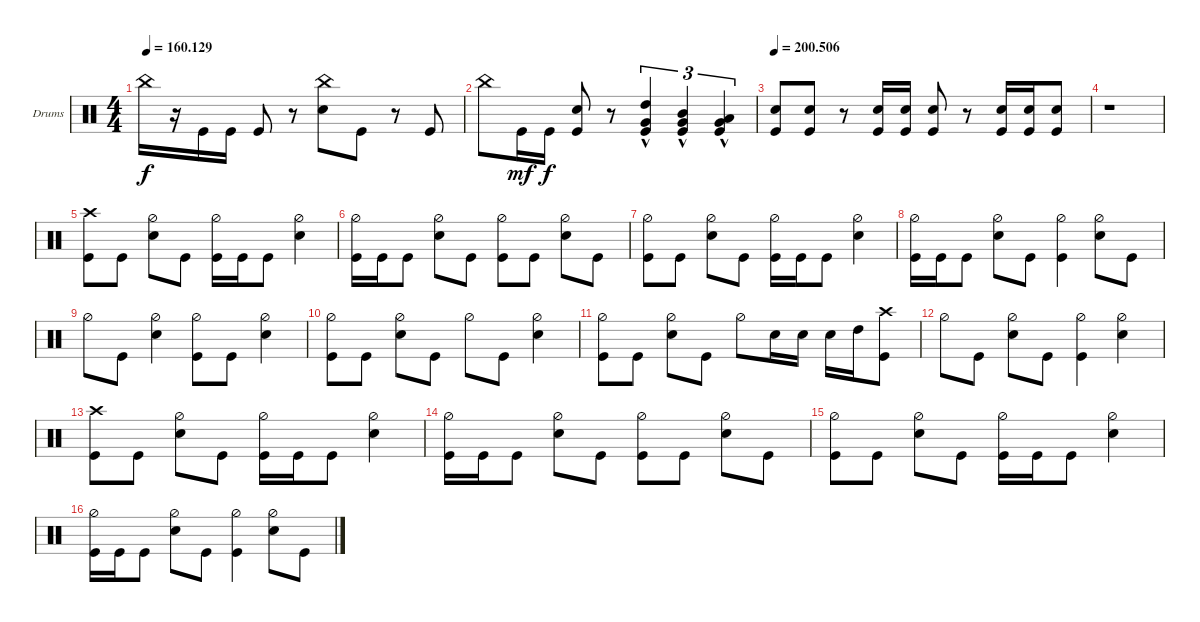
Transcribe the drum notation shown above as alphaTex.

\bracketExtendMode groupsimilarinstruments
\firstSystemTrackNameOrientation horizontal
\otherSystemsTrackNameOrientation horizontal
\track ("Emile Bardou" "Drums") {instrument percussion}
\staff {score}
\articulation defaults
\ts (4 4)
\tempo
160.129
\accidentals auto
\clef neutral
\ottava regular
\simile none
\ks c "China (hit)".16{dy f}
r.16 "Kick (hit)".16 "Kick (hit)".16 "Kick (hit)".8 r.8 ("China (hit)" "Snare (hit) 2").8 "Kick (hit)".8 r.8 "Kick (hit)".8 |
"China (hit)".8 "Kick (hit)".16{dy mf} "Kick (hit)".16{dy f} ("Kick (hit)" "Snare (hit) 2").8 r.8 ("Kick (hit)"{hac} "Very Low Tom (hit)"{hac} "High Tom (hit)").4{tu (3 2)} ("Kick (hit)"{hac} "Very Low Tom (hit)"{hac} "Mid Tom (hit)").4{tu (3 2)} ("Kick (hit)"{hac} "Very Low Tom (hit)"{hac} "Low Tom (hit)").4{tu (3 2)} |
\tempo
200.506 ("Kick (hit)" "Snare (hit) 2").8 ("Kick (hit)" "Snare (hit) 2").8 r.8 ("Kick (hit)" "Snare (hit) 2").16 ("Kick (hit)" "Snare (hit) 2").16 ("Kick (hit)" "Snare (hit) 2").8 r.8 ("Kick (hit)" "Snare (hit) 2").16 ("Kick (hit)" "Snare (hit) 2").16 ("Kick (hit)" "Snare (hit) 2").8 |
r.1 |
("Kick (hit)" "Crash high (hit)").8 "Kick (hit)".8 ("Snare (hit) 2" "Hi-Hat (half)").8 "Kick (hit)".8 ("Kick (hit)" "Hi-Hat (half)").16 "Kick (hit)".16 "Kick (hit)".8 ("Snare (hit) 2" "Hi-Hat (half)").4 |
("Kick (hit)" "Hi-Hat (half)").16 "Kick (hit)".16 "Kick (hit)".8 ("Snare (hit) 2" "Hi-Hat (half)").8 "Kick (hit)".8 ("Hi-Hat (half)" "Kick (hit)").8 "Kick (hit)".8 ("Snare (hit) 2" "Hi-Hat (half)").8 "Kick (hit)".8 |
("Kick (hit)" "Hi-Hat (half)").8 "Kick (hit)".8 ("Snare (hit) 2" "Hi-Hat (half)").8 "Kick (hit)".8 ("Kick (hit)" "Hi-Hat (half)").16 "Kick (hit)".16 "Kick (hit)".8 ("Snare (hit) 2" "Hi-Hat (half)").4 |
("Kick (hit)" "Hi-Hat (half)").16 "Kick (hit)".16 "Kick (hit)".8 ("Snare (hit) 2" "Hi-Hat (half)").8 "Kick (hit)".8 ("Kick (hit)" "Hi-Hat (half)").4 ("Snare (hit) 2" "Hi-Hat (half)").8 "Kick (hit)".8 |
"Hi-Hat (half)".8 "Kick (hit)".8 ("Snare (hit) 2" "Hi-Hat (half)").4 ("Kick (hit)" "Hi-Hat (half)").8 "Kick (hit)".8 ("Snare (hit) 2" "Hi-Hat (half)").4 |
("Kick (hit)" "Hi-Hat (half)").8 "Kick (hit)".8 ("Snare (hit) 2" "Hi-Hat (half)").8 "Kick (hit)".8 "Hi-Hat (half)".8 "Kick (hit)".8 ("Snare (hit) 2" "Hi-Hat (half)").4 |
("Kick (hit)" "Hi-Hat (half)").8 "Kick (hit)".8 ("Snare (hit) 2" "Hi-Hat (half)").8 "Kick (hit)".8 "Hi-Hat (half)".8 "Snare (hit) 2".16 "Snare (hit) 2".16 "Snare (hit) 2".16 "High Tom (hit)".16 ("Kick (hit)" "Crash high (hit)").8 |
"Hi-Hat (half)".8 "Kick (hit)".8 ("Snare (hit) 2" "Hi-Hat (half)").8 "Kick (hit)".8 ("Kick (hit)" "Hi-Hat (half)").4 ("Snare (hit) 2" "Hi-Hat (half)").4 |
("Kick (hit)" "Crash high (hit)").8 "Kick (hit)".8 ("Snare (hit) 2" "Hi-Hat (half)").8 "Kick (hit)".8 ("Kick (hit)" "Hi-Hat (half)").16 "Kick (hit)".16 "Kick (hit)".8 ("Snare (hit) 2" "Hi-Hat (half)").4 |
("Kick (hit)" "Hi-Hat (half)").16 "Kick (hit)".16 "Kick (hit)".8 ("Snare (hit) 2" "Hi-Hat (half)").8 "Kick (hit)".8 ("Hi-Hat (half)" "Kick (hit)").8 "Kick (hit)".8 ("Snare (hit) 2" "Hi-Hat (half)").8 "Kick (hit)".8 |
("Kick (hit)" "Hi-Hat (half)").8 "Kick (hit)".8 ("Snare (hit) 2" "Hi-Hat (half)").8 "Kick (hit)".8 ("Kick (hit)" "Hi-Hat (half)").16 "Kick (hit)".16 "Kick (hit)".8 ("Snare (hit) 2" "Hi-Hat (half)").4 |
("Kick (hit)" "Hi-Hat (half)").16 "Kick (hit)".16 "Kick (hit)".8 ("Snare (hit) 2" "Hi-Hat (half)").8 "Kick (hit)".8 ("Kick (hit)" "Hi-Hat (half)").4 ("Snare (hit) 2" "Hi-Hat (half)").8 "Kick (hit)".8
